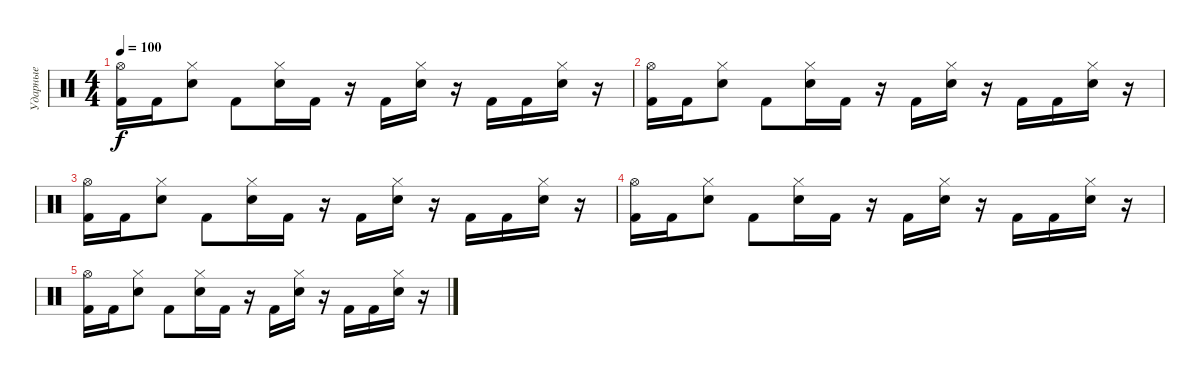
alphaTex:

\track ("Ударные" "Ударные") {instrument percussion}
\staff {score}
\articulation defaults
\ts (4 4)
\tempo 100
\clef neutral
\ks c
("Hi-Hat (open)" "Kick (hit) 2").16{dy f} "Kick (hit) 2".16 ("Hi-Hat (closed)" "Electric Snare (hit)").8 "Kick (hit) 2".8 ("Hi-Hat (closed)" "Electric Snare (hit)").16 "Kick (hit) 2".16 r.16 "Kick (hit) 2".16 ("Hi-Hat (closed)" "Electric Snare (hit)").16 r.16 "Kick (hit) 2".16 "Kick (hit) 2".16 ("Hi-Hat (closed)" "Electric Snare (hit)").16 r.16 |
("Hi-Hat (open)" "Kick (hit) 2").16 "Kick (hit) 2".16 ("Hi-Hat (closed)" "Electric Snare (hit)").8 "Kick (hit) 2".8 ("Hi-Hat (closed)" "Electric Snare (hit)").16 "Kick (hit) 2".16 r.16 "Kick (hit) 2".16 ("Hi-Hat (closed)" "Electric Snare (hit)").16 r.16 "Kick (hit) 2".16 "Kick (hit) 2".16 ("Hi-Hat (closed)" "Electric Snare (hit)").16 r.16 |
("Hi-Hat (open)" "Kick (hit) 2").16 "Kick (hit) 2".16 ("Hi-Hat (closed)" "Electric Snare (hit)").8 "Kick (hit) 2".8 ("Hi-Hat (closed)" "Electric Snare (hit)").16 "Kick (hit) 2".16 r.16 "Kick (hit) 2".16 ("Hi-Hat (closed)" "Electric Snare (hit)").16 r.16 "Kick (hit) 2".16 "Kick (hit) 2".16 ("Hi-Hat (closed)" "Electric Snare (hit)").16 r.16 |
("Hi-Hat (open)" "Kick (hit) 2").16 "Kick (hit) 2".16 ("Hi-Hat (closed)" "Electric Snare (hit)").8 "Kick (hit) 2".8 ("Hi-Hat (closed)" "Electric Snare (hit)").16 "Kick (hit) 2".16 r.16 "Kick (hit) 2".16 ("Hi-Hat (closed)" "Electric Snare (hit)").16 r.16 "Kick (hit) 2".16 "Kick (hit) 2".16 ("Hi-Hat (closed)" "Electric Snare (hit)").16 r.16 |
("Hi-Hat (open)" "Kick (hit) 2").16 "Kick (hit) 2".16 ("Hi-Hat (closed)" "Electric Snare (hit)").8 "Kick (hit) 2".8 ("Hi-Hat (closed)" "Electric Snare (hit)").16 "Kick (hit) 2".16 r.16 "Kick (hit) 2".16 ("Hi-Hat (closed)" "Electric Snare (hit)").16 r.16 "Kick (hit) 2".16 "Kick (hit) 2".16 ("Hi-Hat (closed)" "Electric Snare (hit)").16 r.16
